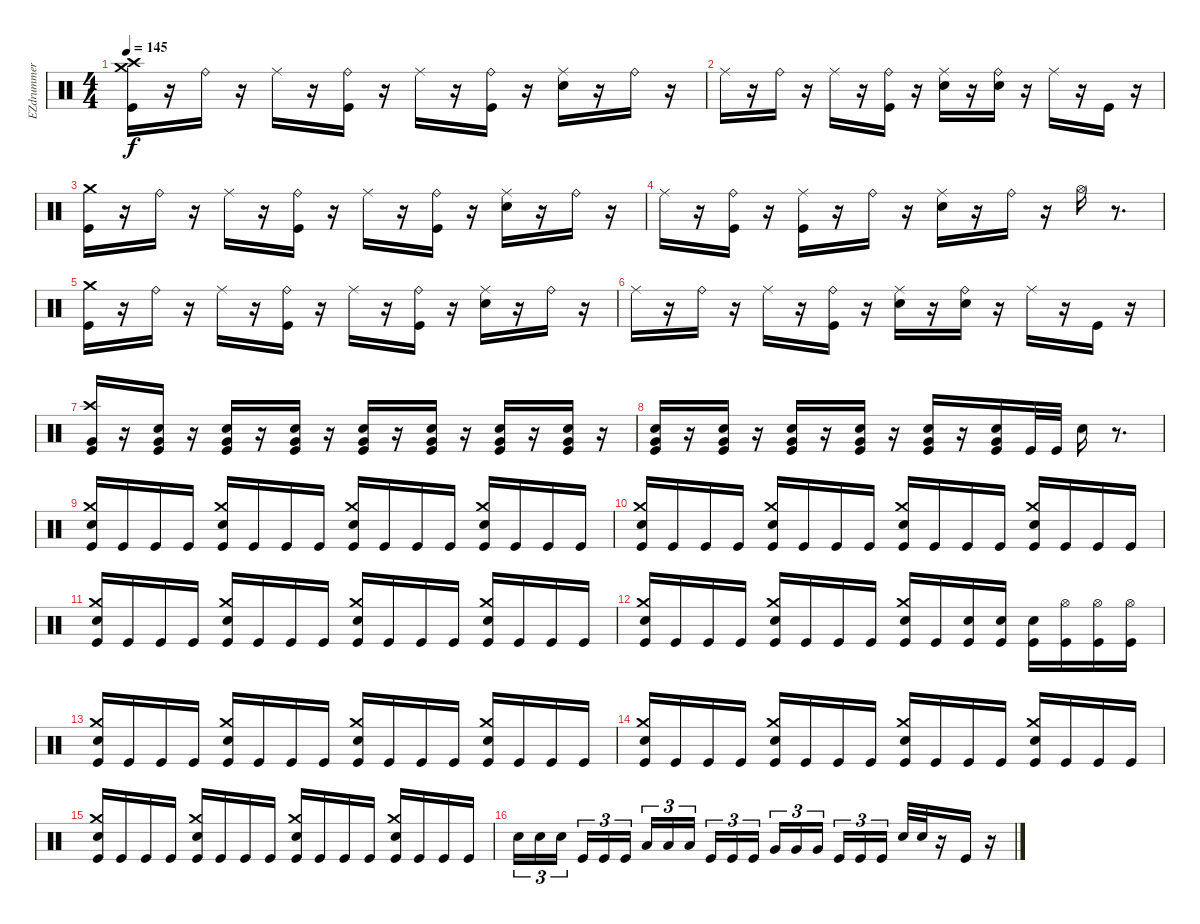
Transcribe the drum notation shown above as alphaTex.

\track ("EZdrummer 01" "EZdrummer ") {instrument percussion}
\staff {score}
\articulation defaults
\ts (4 4)
\tempo 145
\clef neutral
\ks c
("Kick (hit)" "Crash high (hit)" "Crash medium (hit)").16{dy f} r.16 "Ride (bell)".16 r.16 "Ride (middle)".16 r.16 ("Kick (hit)" "Ride (bell)").16 r.16 "Ride (middle)".16 r.16 ("Kick (hit)" "Ride (bell)").16 r.16 ("Snare (hit) 2" "Ride (middle)").16 r.16 "Ride (bell)".16 r.16 |
"Ride (middle)".16 r.16 "Ride (bell)".16 r.16 "Ride (middle)".16 r.16 ("Kick (hit)" "Ride (bell)").16 r.16 ("Snare (hit) 2" "Ride (middle)").16 r.16 ("Snare (hit) 2" "Ride (bell)").16 r.16 "Ride (middle)".16 r.16 "Kick (hit)".16 r.16 |
("Kick (hit)" "Crash medium (hit)").16 r.16 "Ride (bell)".16 r.16 "Ride (middle)".16 r.16 ("Ride (bell)" "Kick (hit)").16 r.16 "Ride (middle)".16 r.16 ("Ride (bell)" "Kick (hit)").16 r.16 ("Ride (middle)" "Snare (hit) 2").16 r.16 "Ride (bell)".16 r.16 |
"Ride (middle)".16 r.16 ("Ride (bell)" "Kick (hit)").16 r.16 ("Ride (middle)" "Kick (hit)").16 r.16 "Ride (bell)".16 r.16 ("Ride (middle)" "Snare (hit) 2").16 r.16 "Ride (bell)".16 r.16 "Hi-Hat (open)".16 r.8{d} |
("Kick (hit)" "Crash medium (hit)").16 r.16 "Ride (bell)".16 r.16 "Ride (middle)".16 r.16 ("Ride (bell)" "Kick (hit)").16 r.16 "Ride (middle)".16 r.16 ("Ride (bell)" "Kick (hit)").16 r.16 ("Ride (middle)" "Snare (hit) 2").16 r.16 "Ride (bell)".16 r.16 |
"Ride (middle)".16 r.16 "Ride (bell)".16 r.16 "Ride (middle)".16 r.16 ("Ride (bell)" "Kick (hit)").16 r.16 ("Ride (middle)" "Snare (hit) 2").16 r.16 ("Ride (bell)" "Snare (hit) 2").16 r.16 "Ride (middle)".16 r.16 "Kick (hit)".16 r.16 |
("Kick (hit)" "Very Low Tom (hit)" "Crash high (hit)").16 r.16 ("Kick (hit)" "Snare (hit) 2" "Very Low Tom (hit)").16 r.16 ("Kick (hit)" "Snare (hit) 2" "Very Low Tom (hit)").16 r.16 ("Kick (hit)" "Snare (hit) 2" "Very Low Tom (hit)").16 r.16 ("Kick (hit)" "Snare (hit) 2" "Very Low Tom (hit)").16 r.16 ("Kick (hit)" "Snare (hit) 2" "Very Low Tom (hit)").16 r.16 ("Kick (hit)" "Snare (hit) 2" "Very Low Tom (hit)").16 r.16 ("Kick (hit)" "Snare (hit) 2" "Very Low Tom (hit)").16 r.16 |
("Kick (hit)" "Snare (hit) 2" "Very Low Tom (hit)").16 r.16 ("Kick (hit)" "Snare (hit) 2" "Very Low Tom (hit)").16 r.16 ("Kick (hit)" "Snare (hit) 2" "Very Low Tom (hit)").16 r.16 ("Kick (hit)" "Snare (hit) 2" "Very Low Tom (hit)").16 r.16 ("Kick (hit)" "Snare (hit) 2" "Very Low Tom (hit)").16 r.16 ("Kick (hit)" "Snare (hit) 2" "Very Low Tom (hit)").16 "Kick (hit)".32 "Kick (hit)".32 "Snare (hit) 2".16 r.8{d} |
("Kick (hit)" "Snare (hit) 2" "Crash medium (hit)").16 "Kick (hit)".16 "Kick (hit)".16 "Kick (hit)".16 ("Kick (hit)" "Snare (hit) 2" "Crash medium (hit)").16 "Kick (hit)".16 "Kick (hit)".16 "Kick (hit)".16 ("Kick (hit)" "Snare (hit) 2" "Crash medium (hit)").16 "Kick (hit)".16 "Kick (hit)".16 "Kick (hit)".16 ("Kick (hit)" "Snare (hit) 2" "Crash medium (hit)").16 "Kick (hit)".16 "Kick (hit)".16 "Kick (hit)".16 |
("Kick (hit)" "Snare (hit) 2" "Crash medium (hit)").16 "Kick (hit)".16 "Kick (hit)".16 "Kick (hit)".16 ("Kick (hit)" "Snare (hit) 2" "Crash medium (hit)").16 "Kick (hit)".16 "Kick (hit)".16 "Kick (hit)".16 ("Kick (hit)" "Snare (hit) 2" "Crash medium (hit)").16 "Kick (hit)".16 "Kick (hit)".16 "Kick (hit)".16 ("Kick (hit)" "Snare (hit) 2" "Crash medium (hit)").16 "Kick (hit)".16 "Kick (hit)".16 "Kick (hit)".16 |
("Kick (hit)" "Snare (hit) 2" "Crash medium (hit)").16 "Kick (hit)".16 "Kick (hit)".16 "Kick (hit)".16 ("Kick (hit)" "Snare (hit) 2" "Crash medium (hit)").16 "Kick (hit)".16 "Kick (hit)".16 "Kick (hit)".16 ("Kick (hit)" "Snare (hit) 2" "Crash medium (hit)").16 "Kick (hit)".16 "Kick (hit)".16 "Kick (hit)".16 ("Kick (hit)" "Snare (hit) 2" "Crash medium (hit)").16 "Kick (hit)".16 "Kick (hit)".16 "Kick (hit)".16 |
("Kick (hit)" "Snare (hit) 2" "Crash medium (hit)").16 "Kick (hit)".16 "Kick (hit)".16 "Kick (hit)".16 ("Kick (hit)" "Snare (hit) 2" "Crash medium (hit)").16 "Kick (hit)".16 "Kick (hit)".16 "Kick (hit)".16 ("Kick (hit)" "Snare (hit) 2" "Crash medium (hit)").16 "Kick (hit)".16 ("Kick (hit)" "Snare (hit) 2").16 ("Kick (hit)" "Snare (hit) 2").16 ("Kick (hit)" "Snare (hit) 2").16 ("Kick (hit)" "Hi-Hat (open)").16 ("Kick (hit)" "Hi-Hat (open)").16 ("Kick (hit)" "Hi-Hat (open)").16 |
("Kick (hit)" "Snare (hit) 2" "Crash medium (hit)").16 "Kick (hit)".16 "Kick (hit)".16 "Kick (hit)".16 ("Kick (hit)" "Snare (hit) 2" "Crash medium (hit)").16 "Kick (hit)".16 "Kick (hit)".16 "Kick (hit)".16 ("Kick (hit)" "Snare (hit) 2" "Crash medium (hit)").16 "Kick (hit)".16 "Kick (hit)".16 "Kick (hit)".16 ("Kick (hit)" "Snare (hit) 2" "Crash medium (hit)").16 "Kick (hit)".16 "Kick (hit)".16 "Kick (hit)".16 |
("Kick (hit)" "Snare (hit) 2" "Crash medium (hit)").16 "Kick (hit)".16 "Kick (hit)".16 "Kick (hit)".16 ("Kick (hit)" "Snare (hit) 2" "Crash medium (hit)").16 "Kick (hit)".16 "Kick (hit)".16 "Kick (hit)".16 ("Kick (hit)" "Snare (hit) 2" "Crash medium (hit)").16 "Kick (hit)".16 "Kick (hit)".16 "Kick (hit)".16 ("Kick (hit)" "Snare (hit) 2" "Crash medium (hit)").16 "Kick (hit)".16 "Kick (hit)".16 "Kick (hit)".16 |
("Kick (hit)" "Snare (hit) 2" "Crash medium (hit)").16 "Kick (hit)".16 "Kick (hit)".16 "Kick (hit)".16 ("Kick (hit)" "Snare (hit) 2" "Crash medium (hit)").16 "Kick (hit)".16 "Kick (hit)".16 "Kick (hit)".16 ("Kick (hit)" "Snare (hit) 2" "Crash medium (hit)").16 "Kick (hit)".16 "Kick (hit)".16 "Kick (hit)".16 ("Kick (hit)" "Snare (hit) 2" "Crash medium (hit)").16 "Kick (hit)".16 "Kick (hit)".16 "Kick (hit)".16 |
"Snare (hit) 2".16{tu (3 2)} "Snare (hit) 2".16{tu (3 2)} "Snare (hit) 2".16{tu (3 2)} "Kick (hit)".16{tu (3 2)} "Kick (hit)".16{tu (3 2)} "Kick (hit)".16{tu (3 2)} "Low Tom (hit)".16{tu (3 2)} "Low Tom (hit)".16{tu (3 2)} "Low Tom (hit)".16{tu (3 2)} "Kick (hit)".16{tu (3 2)} "Kick (hit)".16{tu (3 2)} "Kick (hit)".16{tu (3 2)} "Very Low Tom (hit)".16{tu (3 2)} "Very Low Tom (hit)".16{tu (3 2)} "Very Low Tom (hit)".16{tu (3 2)} "Kick (hit)".16{tu (3 2)} "Kick (hit)".16{tu (3 2)} "Kick (hit)".16{tu (3 2)} "Snare (hit) 2".32 "Electric Snare (hit)".32 r.16 "Kick (hit)".16 r.16
